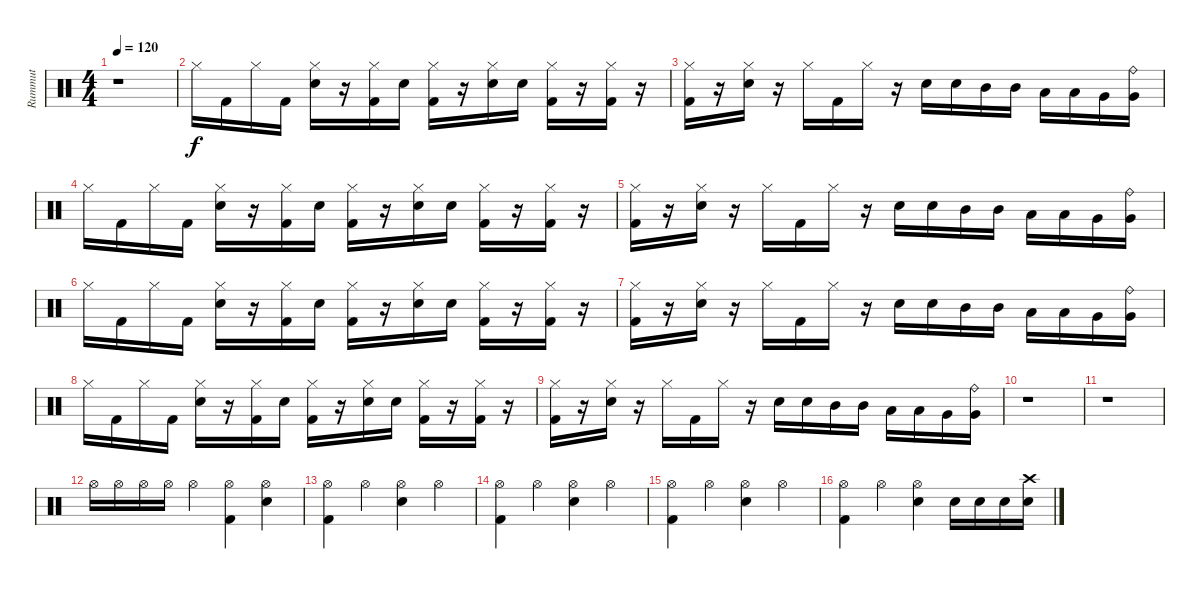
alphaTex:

\track ("Rummut" "Rummut") {instrument percussion}
\staff {score}
\articulation defaults
\ts (4 4)
\tempo 120
\clef neutral
\ks c
r.1{dy f} |
"Hi-Hat (closed)".16 "Kick (hit) 2".16 "Hi-Hat (closed)".16 "Kick (hit) 2".16 ("Hi-Hat (closed)" "Snare (hit) 2").16 r.16 ("Hi-Hat (closed)" "Kick (hit) 2").16 "Snare (hit) 2".16 ("Hi-Hat (closed)" "Kick (hit) 2").16 r.16 ("Hi-Hat (closed)" "Snare (hit) 2").16 "Snare (hit) 2".16 ("Hi-Hat (closed)" "Kick (hit) 2").16 r.16 ("Hi-Hat (closed)" "Kick (hit) 2").16 r.16 |
("Hi-Hat (closed)" "Kick (hit) 2").16 r.16 ("Hi-Hat (closed)" "Snare (hit) 2").16 r.16 "Hi-Hat (closed)".16 "Kick (hit) 2".16 "Hi-Hat (closed)".16 r.16 "Snare (hit) 2".16 "Snare (hit) 2".16 "Mid Tom (hit)".16 "Mid Tom (hit)".16 "Low Tom (hit)".16 "Low Tom (hit)".16 "Very Low Tom (hit)".16 ("Very Low Tom (hit)" "Ride (bell)").16 |
"Hi-Hat (closed)".16 "Kick (hit) 2".16 "Hi-Hat (closed)".16 "Kick (hit) 2".16 ("Hi-Hat (closed)" "Snare (hit) 2").16 r.16 ("Hi-Hat (closed)" "Kick (hit) 2").16 "Snare (hit) 2".16 ("Hi-Hat (closed)" "Kick (hit) 2").16 r.16 ("Hi-Hat (closed)" "Snare (hit) 2").16 "Snare (hit) 2".16 ("Hi-Hat (closed)" "Kick (hit) 2").16 r.16 ("Hi-Hat (closed)" "Kick (hit) 2").16 r.16 |
("Hi-Hat (closed)" "Kick (hit) 2").16 r.16 ("Hi-Hat (closed)" "Snare (hit) 2").16 r.16 "Hi-Hat (closed)".16 "Kick (hit) 2".16 "Hi-Hat (closed)".16 r.16 "Snare (hit) 2".16 "Snare (hit) 2".16 "Mid Tom (hit)".16 "Mid Tom (hit)".16 "Low Tom (hit)".16 "Low Tom (hit)".16 "Very Low Tom (hit)".16 ("Very Low Tom (hit)" "Ride (bell)").16 |
"Hi-Hat (closed)".16 "Kick (hit) 2".16 "Hi-Hat (closed)".16 "Kick (hit) 2".16 ("Hi-Hat (closed)" "Snare (hit) 2").16 r.16 ("Hi-Hat (closed)" "Kick (hit) 2").16 "Snare (hit) 2".16 ("Hi-Hat (closed)" "Kick (hit) 2").16 r.16 ("Hi-Hat (closed)" "Snare (hit) 2").16 "Snare (hit) 2".16 ("Hi-Hat (closed)" "Kick (hit) 2").16 r.16 ("Hi-Hat (closed)" "Kick (hit) 2").16 r.16 |
("Hi-Hat (closed)" "Kick (hit) 2").16 r.16 ("Hi-Hat (closed)" "Snare (hit) 2").16 r.16 "Hi-Hat (closed)".16 "Kick (hit) 2".16 "Hi-Hat (closed)".16 r.16 "Snare (hit) 2".16 "Snare (hit) 2".16 "Mid Tom (hit)".16 "Mid Tom (hit)".16 "Low Tom (hit)".16 "Low Tom (hit)".16 "Very Low Tom (hit)".16 ("Very Low Tom (hit)" "Ride (bell)").16 |
"Hi-Hat (closed)".16 "Kick (hit) 2".16 "Hi-Hat (closed)".16 "Kick (hit) 2".16 ("Hi-Hat (closed)" "Snare (hit) 2").16 r.16 ("Hi-Hat (closed)" "Kick (hit) 2").16 "Snare (hit) 2".16 ("Hi-Hat (closed)" "Kick (hit) 2").16 r.16 ("Hi-Hat (closed)" "Snare (hit) 2").16 "Snare (hit) 2".16 ("Hi-Hat (closed)" "Kick (hit) 2").16 r.16 ("Hi-Hat (closed)" "Kick (hit) 2").16 r.16 |
("Hi-Hat (closed)" "Kick (hit) 2").16 r.16 ("Hi-Hat (closed)" "Snare (hit) 2").16 r.16 "Hi-Hat (closed)".16 "Kick (hit) 2".16 "Hi-Hat (closed)".16 r.16 "Snare (hit) 2".16 "Snare (hit) 2".16 "Mid Tom (hit)".16 "Mid Tom (hit)".16 "Low Tom (hit)".16 "Low Tom (hit)".16 "Very Low Tom (hit)".16 ("Very Low Tom (hit)" "Ride (bell)").16 |
r.1 |
r.1 |
"Hi-Hat (open)".16 "Hi-Hat (open)".16 "Hi-Hat (open)".16 "Hi-Hat (open)".16 "Hi-Hat (open)".4 ("Hi-Hat (open)" "Kick (hit) 2").4 ("Hi-Hat (open)" "Snare (hit) 2").4 |
("Hi-Hat (open)" "Kick (hit) 2").4 "Hi-Hat (open)".4 ("Hi-Hat (open)" "Snare (hit) 2").4 "Hi-Hat (open)".4 |
("Hi-Hat (open)" "Kick (hit) 2").4 "Hi-Hat (open)".4 ("Hi-Hat (open)" "Snare (hit) 2").4 "Hi-Hat (open)".4 |
("Hi-Hat (open)" "Kick (hit) 2").4 "Hi-Hat (open)".4 ("Hi-Hat (open)" "Snare (hit) 2").4 "Hi-Hat (open)".4 |
("Hi-Hat (open)" "Kick (hit) 2").4 "Hi-Hat (open)".4 ("Hi-Hat (open)" "Snare (hit) 2").4 "Snare (hit) 2".16 "Snare (hit) 2".16 "Snare (hit) 2".16 ("Snare (hit) 2" "Crash high (hit)").16
